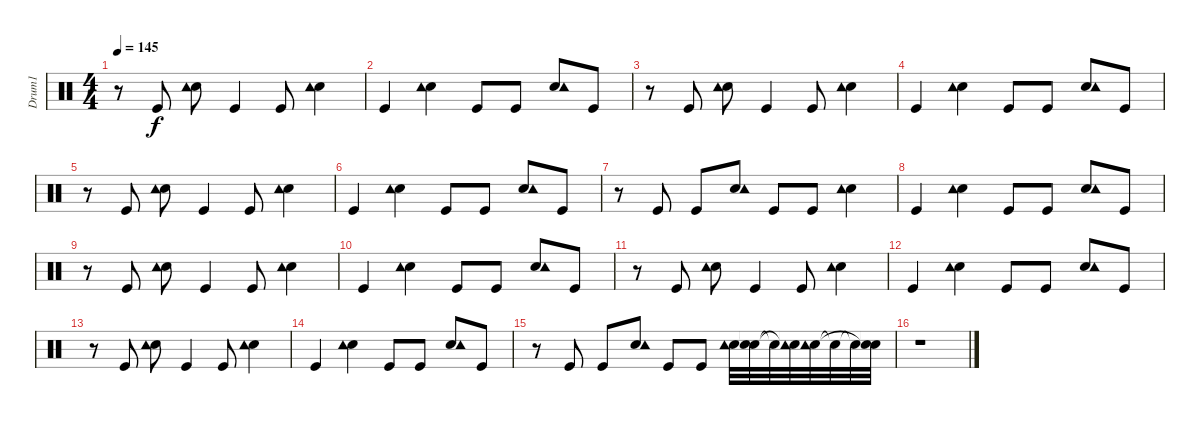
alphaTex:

\track ("Drum1" "Drum1") {instrument percussion}
\staff {score}
\articulation defaults
\ts (4 4)
\tempo 145
\clef neutral
\ks c
r.8{dy f} "Kick (hit)".8 ("Snare (hit) 2" "Tambourine (hit)").8 "Kick (hit)".4 "Kick (hit)".8 ("Snare (hit) 2" "Tambourine (hit)").4 |
"Kick (hit)".4 ("Snare (hit) 2" "Tambourine (hit)").4 "Kick (hit)".8 "Kick (hit)".8 ("Snare (hit) 2" "Tambourine (hit)").8 "Kick (hit)".8 |
r.8 "Kick (hit)".8 ("Snare (hit) 2" "Tambourine (hit)").8 "Kick (hit)".4 "Kick (hit)".8 ("Snare (hit) 2" "Tambourine (hit)").4 |
"Kick (hit)".4 ("Snare (hit) 2" "Tambourine (hit)").4 "Kick (hit)".8 "Kick (hit)".8 ("Snare (hit) 2" "Tambourine (hit)").8 "Kick (hit)".8 |
r.8 "Kick (hit)".8 ("Snare (hit) 2" "Tambourine (hit)").8 "Kick (hit)".4 "Kick (hit)".8 ("Snare (hit) 2" "Tambourine (hit)").4 |
"Kick (hit)".4 ("Snare (hit) 2" "Tambourine (hit)").4 "Kick (hit)".8 "Kick (hit)".8 ("Snare (hit) 2" "Tambourine (hit)").8 "Kick (hit)".8 |
r.8 "Kick (hit)".8 "Kick (hit)".8 ("Snare (hit) 2" "Tambourine (hit)").8 "Kick (hit)".8 "Kick (hit)".8 ("Snare (hit) 2" "Tambourine (hit)").4 |
"Kick (hit)".4 ("Snare (hit) 2" "Tambourine (hit)").4 "Kick (hit)".8 "Kick (hit)".8 ("Snare (hit) 2" "Tambourine (hit)").8 "Kick (hit)".8 |
r.8 "Kick (hit)".8 ("Snare (hit) 2" "Tambourine (hit)").8 "Kick (hit)".4 "Kick (hit)".8 ("Snare (hit) 2" "Tambourine (hit)").4 |
"Kick (hit)".4 ("Snare (hit) 2" "Tambourine (hit)").4 "Kick (hit)".8 "Kick (hit)".8 ("Snare (hit) 2" "Tambourine (hit)").8 "Kick (hit)".8 |
r.8 "Kick (hit)".8 ("Snare (hit) 2" "Tambourine (hit)").8 "Kick (hit)".4 "Kick (hit)".8 ("Snare (hit) 2" "Tambourine (hit)").4 |
"Kick (hit)".4 ("Snare (hit) 2" "Tambourine (hit)").4 "Kick (hit)".8 "Kick (hit)".8 ("Snare (hit) 2" "Tambourine (hit)").8 "Kick (hit)".8 |
r.8 "Kick (hit)".8 ("Snare (hit) 2" "Tambourine (hit)").8 "Kick (hit)".4 "Kick (hit)".8 ("Snare (hit) 2" "Tambourine (hit)").4 |
"Kick (hit)".4 ("Snare (hit) 2" "Tambourine (hit)").4 "Kick (hit)".8 "Kick (hit)".8 ("Snare (hit) 2" "Tambourine (hit)").8 "Kick (hit)".8 |
r.8 "Kick (hit)".8 "Kick (hit)".8 ("Snare (hit) 2" "Tambourine (hit)").8 "Kick (hit)".8 "Kick (hit)".8 ("Snare (hit) 2" "Tambourine (hit)").32 ("Snare (hit)"{t} "Snare (hit)"{t}).32 "Snare (hit)"{t}.32 ("Snare (hit) 2"{t} "Tambourine (hit)"{t}).32 ("Snare (hit) 2" "Tambourine (hit)").32 "Snare (hit)"{t}.32 "Snare (hit)"{t}.32 ("Snare (hit)"{t} "Snare (hit)"{t}).32 |
r.1
